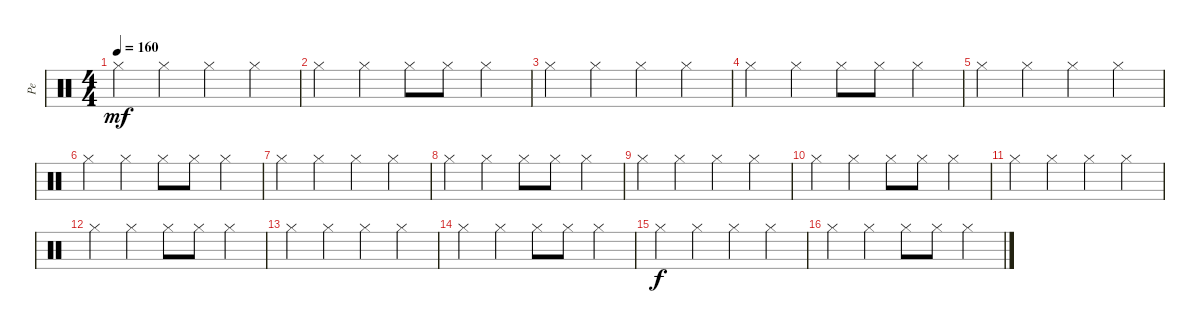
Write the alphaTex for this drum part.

\track ("Pe" "Pe") {instrument percussion}
\staff {score}
\articulation defaults
\ts (4 4)
\tempo 160
\clef neutral
\ks c "Hi-Hat (closed)".4{dy mf} "Hi-Hat (closed)".4 "Hi-Hat (closed)".4 "Hi-Hat (closed)".4
|
"Hi-Hat (closed)".4 "Hi-Hat (closed)".4 "Hi-Hat (closed)".8 "Hi-Hat (closed)".8 "Hi-Hat (closed)".4 |
"Hi-Hat (closed)".4 "Hi-Hat (closed)".4 "Hi-Hat (closed)".4 "Hi-Hat (closed)".4 |
"Hi-Hat (closed)".4 "Hi-Hat (closed)".4 "Hi-Hat (closed)".8 "Hi-Hat (closed)".8 "Hi-Hat (closed)".4 |
"Hi-Hat (closed)".4 "Hi-Hat (closed)".4 "Hi-Hat (closed)".4 "Hi-Hat (closed)".4 |
"Hi-Hat (closed)".4 "Hi-Hat (closed)".4 "Hi-Hat (closed)".8 "Hi-Hat (closed)".8 "Hi-Hat (closed)".4 |
"Hi-Hat (closed)".4 "Hi-Hat (closed)".4 "Hi-Hat (closed)".4 "Hi-Hat (closed)".4 |
"Hi-Hat (closed)".4 "Hi-Hat (closed)".4 "Hi-Hat (closed)".8 "Hi-Hat (closed)".8 "Hi-Hat (closed)".4 |
"Hi-Hat (closed)".4 "Hi-Hat (closed)".4 "Hi-Hat (closed)".4 "Hi-Hat (closed)".4 |
"Hi-Hat (closed)".4 "Hi-Hat (closed)".4 "Hi-Hat (closed)".8 "Hi-Hat (closed)".8 "Hi-Hat (closed)".4 |
"Hi-Hat (closed)".4 "Hi-Hat (closed)".4 "Hi-Hat (closed)".4 "Hi-Hat (closed)".4 |
"Hi-Hat (closed)".4 "Hi-Hat (closed)".4 "Hi-Hat (closed)".8 "Hi-Hat (closed)".8 "Hi-Hat (closed)".4 |
"Hi-Hat (closed)".4 "Hi-Hat (closed)".4 "Hi-Hat (closed)".4 "Hi-Hat (closed)".4 |
"Hi-Hat (closed)".4 "Hi-Hat (closed)".4 "Hi-Hat (closed)".8 "Hi-Hat (closed)".8 "Hi-Hat (closed)".4 |
"Hi-Hat (closed)".4{dy f} "Hi-Hat (closed)".4 "Hi-Hat (closed)".4 "Hi-Hat (closed)".4 |
"Hi-Hat (closed)".4 "Hi-Hat (closed)".4 "Hi-Hat (closed)".8 "Hi-Hat (closed)".8 "Hi-Hat (closed)".4
